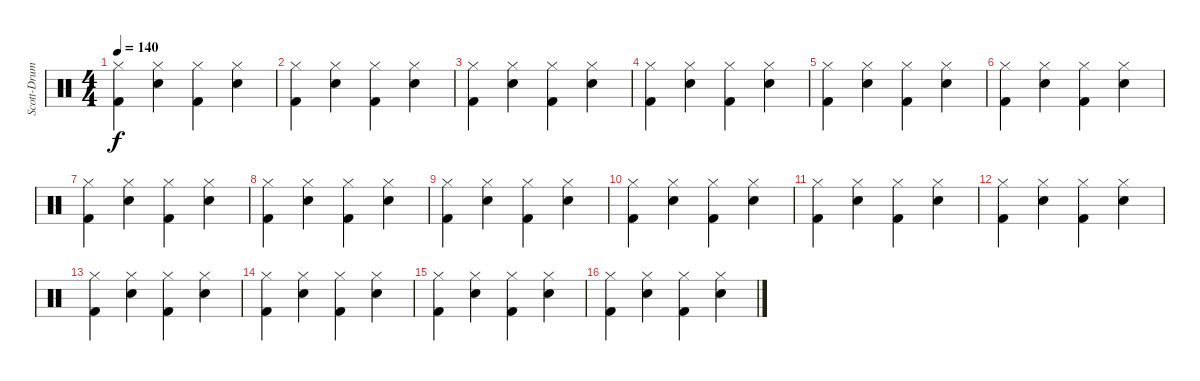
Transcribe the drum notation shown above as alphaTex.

\track ("Scott-Drums" "Scott-Drum") {instrument percussion}
\staff {score}
\articulation defaults
\ts (4 4)
\tempo 140
\clef neutral
\ks c
("Kick (hit) 2" "Hi-Hat (closed)").4{dy f} ("Snare (hit) 2" "Hi-Hat (closed)").4 ("Kick (hit) 2" "Hi-Hat (closed)").4 ("Snare (hit) 2" "Hi-Hat (closed)").4 |
("Kick (hit) 2" "Hi-Hat (closed)").4 ("Snare (hit) 2" "Hi-Hat (closed)").4 ("Kick (hit) 2" "Hi-Hat (closed)").4 ("Snare (hit) 2" "Hi-Hat (closed)").4 |
("Kick (hit) 2" "Hi-Hat (closed)").4 ("Snare (hit) 2" "Hi-Hat (closed)").4 ("Kick (hit) 2" "Hi-Hat (closed)").4 ("Snare (hit) 2" "Hi-Hat (closed)").4 |
("Kick (hit) 2" "Hi-Hat (closed)").4 ("Snare (hit) 2" "Hi-Hat (closed)").4 ("Kick (hit) 2" "Hi-Hat (closed)").4 ("Snare (hit) 2" "Hi-Hat (closed)").4 |
("Kick (hit) 2" "Hi-Hat (closed)").4 ("Snare (hit) 2" "Hi-Hat (closed)").4 ("Kick (hit) 2" "Hi-Hat (closed)").4 ("Snare (hit) 2" "Hi-Hat (closed)").4 |
("Kick (hit) 2" "Hi-Hat (closed)").4 ("Snare (hit) 2" "Hi-Hat (closed)").4 ("Kick (hit) 2" "Hi-Hat (closed)").4 ("Snare (hit) 2" "Hi-Hat (closed)").4 |
("Kick (hit) 2" "Hi-Hat (closed)").4 ("Snare (hit) 2" "Hi-Hat (closed)").4 ("Kick (hit) 2" "Hi-Hat (closed)").4 ("Snare (hit) 2" "Hi-Hat (closed)").4 |
("Kick (hit) 2" "Hi-Hat (closed)").4 ("Snare (hit) 2" "Hi-Hat (closed)").4 ("Kick (hit) 2" "Hi-Hat (closed)").4 ("Snare (hit) 2" "Hi-Hat (closed)").4 |
("Kick (hit) 2" "Hi-Hat (closed)").4 ("Snare (hit) 2" "Hi-Hat (closed)").4 ("Kick (hit) 2" "Hi-Hat (closed)").4 ("Snare (hit) 2" "Hi-Hat (closed)").4 |
("Kick (hit) 2" "Hi-Hat (closed)").4 ("Snare (hit) 2" "Hi-Hat (closed)").4 ("Kick (hit) 2" "Hi-Hat (closed)").4 ("Snare (hit) 2" "Hi-Hat (closed)").4 |
("Kick (hit) 2" "Hi-Hat (closed)").4 ("Snare (hit) 2" "Hi-Hat (closed)").4 ("Kick (hit) 2" "Hi-Hat (closed)").4 ("Snare (hit) 2" "Hi-Hat (closed)").4 |
("Kick (hit) 2" "Hi-Hat (closed)").4 ("Snare (hit) 2" "Hi-Hat (closed)").4 ("Kick (hit) 2" "Hi-Hat (closed)").4 ("Snare (hit) 2" "Hi-Hat (closed)").4 |
("Kick (hit) 2" "Hi-Hat (closed)").4 ("Snare (hit) 2" "Hi-Hat (closed)").4 ("Kick (hit) 2" "Hi-Hat (closed)").4 ("Snare (hit) 2" "Hi-Hat (closed)").4 |
("Kick (hit) 2" "Hi-Hat (closed)").4 ("Snare (hit) 2" "Hi-Hat (closed)").4 ("Kick (hit) 2" "Hi-Hat (closed)").4 ("Snare (hit) 2" "Hi-Hat (closed)").4 |
("Kick (hit) 2" "Hi-Hat (closed)").4 ("Snare (hit) 2" "Hi-Hat (closed)").4 ("Kick (hit) 2" "Hi-Hat (closed)").4 ("Snare (hit) 2" "Hi-Hat (closed)").4 |
("Kick (hit) 2" "Hi-Hat (closed)").4 ("Snare (hit) 2" "Hi-Hat (closed)").4 ("Kick (hit) 2" "Hi-Hat (closed)").4 ("Snare (hit) 2" "Hi-Hat (closed)").4
